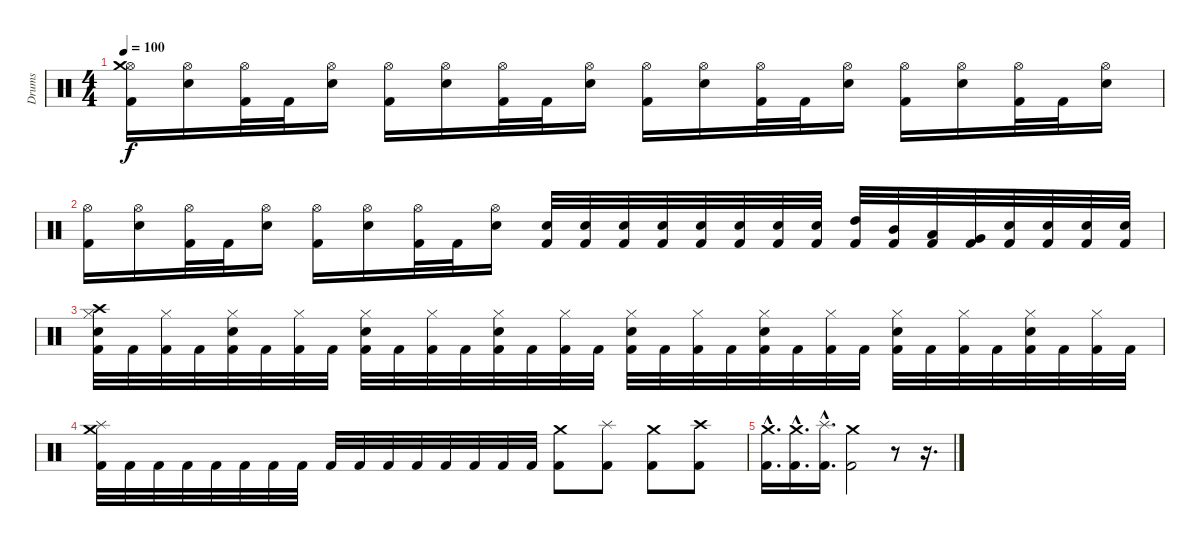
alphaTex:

\track ("Drums" "Drums") {instrument percussion}
\staff {score}
\articulation defaults
\ts (4 4)
\tempo 100
\clef neutral
\ks c
("Kick (hit) 2" "Hi-Hat (open)" "Crash medium (hit)").16{dy f} ("Snare (hit) 2" "Hi-Hat (open)").16 ("Kick (hit) 2" "Hi-Hat (open)").32 "Kick (hit) 2".32 ("Snare (hit) 2" "Hi-Hat (open)").16 ("Kick (hit) 2" "Hi-Hat (open)").16 ("Snare (hit) 2" "Hi-Hat (open)").16 ("Kick (hit) 2" "Hi-Hat (open)").32 "Kick (hit) 2".32 ("Snare (hit) 2" "Hi-Hat (open)").16 ("Kick (hit) 2" "Hi-Hat (open)").16 ("Snare (hit) 2" "Hi-Hat (open)").16 ("Kick (hit) 2" "Hi-Hat (open)").32 "Kick (hit) 2".32 ("Snare (hit) 2" "Hi-Hat (open)").16 ("Kick (hit) 2" "Hi-Hat (open)").16 ("Snare (hit) 2" "Hi-Hat (open)").16 ("Kick (hit) 2" "Hi-Hat (open)").32 "Kick (hit) 2".32 ("Snare (hit) 2" "Hi-Hat (open)").16 |
("Kick (hit) 2" "Hi-Hat (open)").16 ("Snare (hit) 2" "Hi-Hat (open)").16 ("Kick (hit) 2" "Hi-Hat (open)").32 "Kick (hit) 2".32 ("Snare (hit) 2" "Hi-Hat (open)").16 ("Kick (hit) 2" "Hi-Hat (open)").16 ("Snare (hit) 2" "Hi-Hat (open)").16 ("Kick (hit) 2" "Hi-Hat (open)").32 "Kick (hit) 2".32 ("Snare (hit) 2" "Hi-Hat (open)").16 ("Kick (hit) 2" "Snare (hit) 2").32 ("Kick (hit) 2" "Snare (hit) 2").32 ("Kick (hit) 2" "Snare (hit) 2").32 ("Kick (hit) 2" "Snare (hit) 2").32 ("Kick (hit) 2" "Snare (hit) 2").32 ("Kick (hit) 2" "Snare (hit) 2").32 ("Kick (hit) 2" "Snare (hit) 2").32 ("Kick (hit) 2" "Snare (hit) 2").32 ("Kick (hit) 2" "High Tom (hit)").32 ("Kick (hit) 2" "Mid Tom (hit)").32 ("Kick (hit) 2" "Low Tom (hit)").32 ("Kick (hit) 2" "Very Low Tom (hit)").32 ("Kick (hit) 2" "Snare (hit) 2").32 ("Kick (hit) 2" "Snare (hit) 2").32 ("Kick (hit) 2" "Snare (hit) 2").32 ("Kick (hit) 2" "Snare (hit) 2").32 |
("Kick (hit) 2" "Snare (hit) 2" "Hi-Hat (closed)" "Crash high (hit)").32 "Kick (hit) 2".32 ("Kick (hit) 2" "Hi-Hat (closed)").32 "Kick (hit) 2".32 ("Kick (hit) 2" "Snare (hit) 2" "Hi-Hat (closed)").32 "Kick (hit) 2".32 ("Kick (hit) 2" "Hi-Hat (closed)").32 "Kick (hit) 2".32 ("Kick (hit) 2" "Snare (hit) 2" "Hi-Hat (closed)").32 "Kick (hit) 2".32 ("Kick (hit) 2" "Hi-Hat (closed)").32 "Kick (hit) 2".32 ("Kick (hit) 2" "Snare (hit) 2" "Hi-Hat (closed)").32 "Kick (hit) 2".32 ("Kick (hit) 2" "Hi-Hat (closed)").32 "Kick (hit) 2".32 ("Kick (hit) 2" "Snare (hit) 2" "Hi-Hat (closed)").32 "Kick (hit) 2".32 ("Kick (hit) 2" "Hi-Hat (closed)").32 "Kick (hit) 2".32 ("Kick (hit) 2" "Snare (hit) 2" "Hi-Hat (closed)").32 "Kick (hit) 2".32 ("Kick (hit) 2" "Hi-Hat (closed)").32 "Kick (hit) 2".32 ("Kick (hit) 2" "Snare (hit) 2" "Hi-Hat (closed)").32 "Kick (hit) 2".32 ("Kick (hit) 2" "Hi-Hat (closed)").32 "Kick (hit) 2".32 ("Kick (hit) 2" "Snare (hit) 2" "Hi-Hat (closed)").32 "Kick (hit) 2".32 ("Kick (hit) 2" "Hi-Hat (closed)").32 "Kick (hit) 2".32 |
("Kick (hit) 2" "Crash medium (hit)" "Splash (hit)").32 "Kick (hit) 2".32 "Kick (hit) 2".32 "Kick (hit) 2".32 "Kick (hit) 2".32 "Kick (hit) 2".32 "Kick (hit) 2".32 "Kick (hit) 2".32 "Kick (hit) 2".32 "Kick (hit) 2".32 "Kick (hit) 2".32 "Kick (hit) 2".32 "Kick (hit) 2".32 "Kick (hit) 2".32 "Kick (hit) 2".32 "Kick (hit) 2".32 ("Kick (hit) 2" "Crash medium (hit)").8 ("Kick (hit) 2" "Splash (hit)").8 ("Kick (hit) 2" "Crash medium (hit)").8 ("Kick (hit) 2" "Crash high (hit)").8 |
("Kick (hit) 2"{hac} "Crash medium (hit)"{hac}).16{d} ("Kick (hit) 2"{hac} "Crash medium (hit)"{hac}).16{d} ("Kick (hit) 2"{hac} "Splash (hit)"{hac}).16{d} ("Kick (hit) 2" "Crash medium (hit)").2 r.8 r.16{d}
